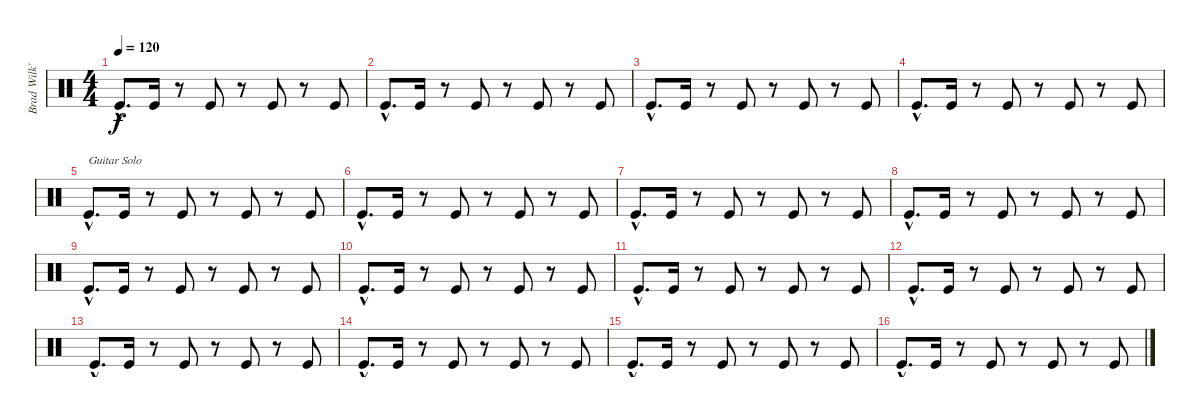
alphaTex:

\track ("Brad Wilk's Bass Drum" "Brad Wilk'") {instrument percussion}
\staff {score}
\articulation defaults
\ts (4 4)
\tempo 120
\clef neutral
\ks c "Kick (hit)"{hac}.8{d dy f} "Kick (hit)".16
r.8 "Kick (hit)".8 r.8 "Kick (hit)".8 r.8 "Kick (hit)".8 |
"Kick (hit)"{hac}.8{d} "Kick (hit)".16 r.8 "Kick (hit)".8 r.8 "Kick (hit)".8 r.8 "Kick (hit)".8 |
"Kick (hit)"{hac}.8{d} "Kick (hit)".16 r.8 "Kick (hit)".8 r.8 "Kick (hit)".8 r.8 "Kick (hit)".8 |
"Kick (hit)"{hac}.8{d} "Kick (hit)".16 r.8 "Kick (hit)".8 r.8 "Kick (hit)".8 r.8 "Kick (hit)".8 |
"Kick (hit)"{hac}.8{d txt "Guitar Solo"} "Kick (hit)".16 r.8 "Kick (hit)".8 r.8 "Kick (hit)".8 r.8 "Kick (hit)".8 |
"Kick (hit)"{hac}.8{d} "Kick (hit)".16 r.8 "Kick (hit)".8 r.8 "Kick (hit)".8 r.8 "Kick (hit)".8 |
"Kick (hit)"{hac}.8{d} "Kick (hit)".16 r.8 "Kick (hit)".8 r.8 "Kick (hit)".8 r.8 "Kick (hit)".8 |
"Kick (hit)"{hac}.8{d} "Kick (hit)".16 r.8 "Kick (hit)".8 r.8 "Kick (hit)".8 r.8 "Kick (hit)".8 |
"Kick (hit)"{hac}.8{d} "Kick (hit)".16 r.8 "Kick (hit)".8 r.8 "Kick (hit)".8 r.8 "Kick (hit)".8 |
"Kick (hit)"{hac}.8{d} "Kick (hit)".16 r.8 "Kick (hit)".8 r.8 "Kick (hit)".8 r.8 "Kick (hit)".8 |
"Kick (hit)"{hac}.8{d} "Kick (hit)".16 r.8 "Kick (hit)".8 r.8 "Kick (hit)".8 r.8 "Kick (hit)".8 |
"Kick (hit)"{hac}.8{d} "Kick (hit)".16 r.8 "Kick (hit)".8 r.8 "Kick (hit)".8 r.8 "Kick (hit)".8 |
"Kick (hit)"{hac}.8{d} "Kick (hit)".16 r.8 "Kick (hit)".8 r.8 "Kick (hit)".8 r.8 "Kick (hit)".8 |
"Kick (hit)"{hac}.8{d} "Kick (hit)".16 r.8 "Kick (hit)".8 r.8 "Kick (hit)".8 r.8 "Kick (hit)".8 |
"Kick (hit)"{hac}.8{d} "Kick (hit)".16 r.8 "Kick (hit)".8 r.8 "Kick (hit)".8 r.8 "Kick (hit)".8 |
"Kick (hit)"{hac}.8{d} "Kick (hit)".16 r.8 "Kick (hit)".8 r.8 "Kick (hit)".8 r.8 "Kick (hit)".8
